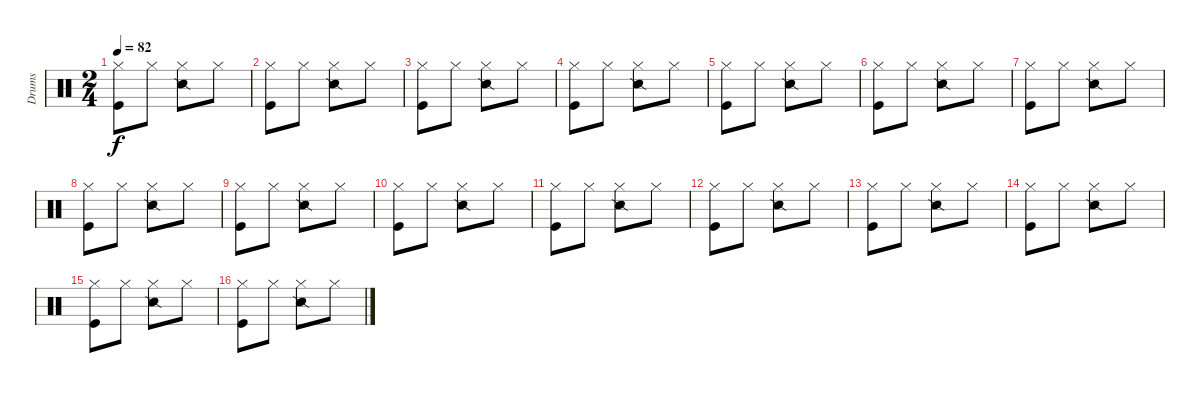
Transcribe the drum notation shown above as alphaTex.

\track ("Drums" "Drums") {instrument percussion}
\staff {score}
\articulation defaults
\ts (2 4)
\tempo 82
\clef neutral
\ks c
("Hi-Hat (closed)" "Kick (hit)").8{dy f} "Hi-Hat (closed)".8 ("Hi-Hat (closed)" "Snare (side stick) 2").8 "Hi-Hat (closed)".8 |
("Hi-Hat (closed)" "Kick (hit)").8 "Hi-Hat (closed)".8 ("Hi-Hat (closed)" "Snare (side stick) 2").8 "Hi-Hat (closed)".8 |
("Hi-Hat (closed)" "Kick (hit)").8 "Hi-Hat (closed)".8 ("Hi-Hat (closed)" "Snare (side stick) 2").8 "Hi-Hat (closed)".8 |
("Hi-Hat (closed)" "Kick (hit)").8 "Hi-Hat (closed)".8 ("Hi-Hat (closed)" "Snare (side stick) 2").8 "Hi-Hat (closed)".8 |
("Hi-Hat (closed)" "Kick (hit)").8 "Hi-Hat (closed)".8 ("Hi-Hat (closed)" "Snare (side stick) 2").8 "Hi-Hat (closed)".8 |
("Hi-Hat (closed)" "Kick (hit)").8 "Hi-Hat (closed)".8 ("Hi-Hat (closed)" "Snare (side stick) 2").8 "Hi-Hat (closed)".8 |
("Hi-Hat (closed)" "Kick (hit)").8 "Hi-Hat (closed)".8 ("Hi-Hat (closed)" "Snare (side stick) 2").8 "Hi-Hat (closed)".8 |
("Hi-Hat (closed)" "Kick (hit)").8 "Hi-Hat (closed)".8 ("Hi-Hat (closed)" "Snare (side stick) 2").8 "Hi-Hat (closed)".8 |
("Hi-Hat (closed)" "Kick (hit)").8 "Hi-Hat (closed)".8 ("Hi-Hat (closed)" "Snare (side stick) 2").8 "Hi-Hat (closed)".8 |
("Hi-Hat (closed)" "Kick (hit)").8 "Hi-Hat (closed)".8 ("Hi-Hat (closed)" "Snare (side stick) 2").8 "Hi-Hat (closed)".8 |
("Hi-Hat (closed)" "Kick (hit)").8 "Hi-Hat (closed)".8 ("Hi-Hat (closed)" "Snare (side stick) 2").8 "Hi-Hat (closed)".8 |
("Hi-Hat (closed)" "Kick (hit)").8 "Hi-Hat (closed)".8 ("Hi-Hat (closed)" "Snare (side stick) 2").8 "Hi-Hat (closed)".8 |
("Hi-Hat (closed)" "Kick (hit)").8 "Hi-Hat (closed)".8 ("Hi-Hat (closed)" "Snare (side stick) 2").8 "Hi-Hat (closed)".8 |
("Hi-Hat (closed)" "Kick (hit)").8 "Hi-Hat (closed)".8 ("Hi-Hat (closed)" "Snare (side stick) 2").8 "Hi-Hat (closed)".8 |
("Hi-Hat (closed)" "Kick (hit)").8 "Hi-Hat (closed)".8 ("Hi-Hat (closed)" "Snare (side stick) 2").8 "Hi-Hat (closed)".8 |
("Hi-Hat (closed)" "Kick (hit)").8 "Hi-Hat (closed)".8 ("Hi-Hat (closed)" "Snare (side stick) 2").8 "Hi-Hat (closed)".8
